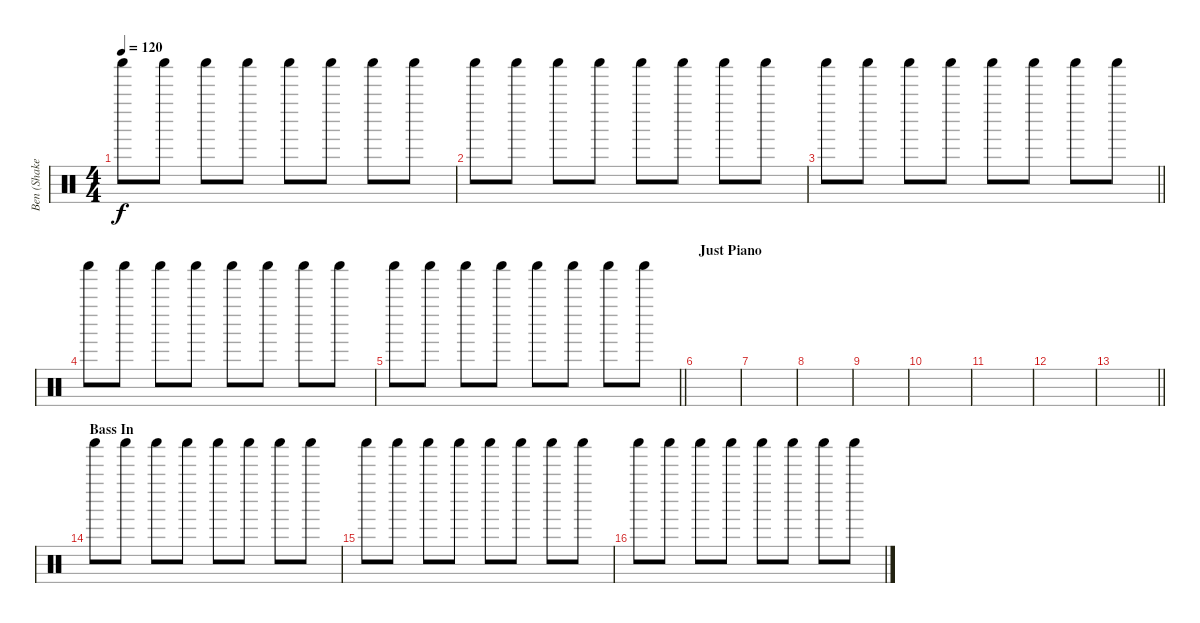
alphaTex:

\track ("Ben (Shaker LOL)" "Ben (Shake") {instrument percussion}
\staff {score}
\articulation defaults
\ts (4 4)
\tempo 120
\clef neutral
\ks c "Shaker (hit)".8{dy f} "Shaker (hit)".8 "Shaker (hit)".8 "Shaker (hit)".8 "Shaker (hit)".8 "Shaker (hit)".8 "Shaker (hit)".8 "Shaker (hit)".8
|
"Shaker (hit)".8 "Shaker (hit)".8 "Shaker (hit)".8 "Shaker (hit)".8 "Shaker (hit)".8 "Shaker (hit)".8 "Shaker (hit)".8 "Shaker (hit)".8 |
\barLineRight lightlight "Shaker (hit)".8 "Shaker (hit)".8 "Shaker (hit)".8 "Shaker (hit)".8 "Shaker (hit)".8 "Shaker (hit)".8 "Shaker (hit)".8 "Shaker (hit)".8
|
"Shaker (hit)".8 "Shaker (hit)".8 "Shaker (hit)".8 "Shaker (hit)".8 "Shaker (hit)".8 "Shaker (hit)".8 "Shaker (hit)".8 "Shaker (hit)".8 |
\barLineRight lightlight "Shaker (hit)".8 "Shaker (hit)".8 "Shaker (hit)".8 "Shaker (hit)".8 "Shaker (hit)".8 "Shaker (hit)".8 "Shaker (hit)".8 "Shaker (hit)".8
|
\section ("" "Just Piano")
|
|
|
|
|
|
|
\barLineRight lightlight
|
\section ("" "Bass In")
"Shaker (hit)".8 "Shaker (hit)".8 "Shaker (hit)".8 "Shaker (hit)".8 "Shaker (hit)".8 "Shaker (hit)".8 "Shaker (hit)".8 "Shaker (hit)".8 |
"Shaker (hit)".8 "Shaker (hit)".8 "Shaker (hit)".8 "Shaker (hit)".8 "Shaker (hit)".8 "Shaker (hit)".8 "Shaker (hit)".8 "Shaker (hit)".8 |
"Shaker (hit)".8 "Shaker (hit)".8 "Shaker (hit)".8 "Shaker (hit)".8 "Shaker (hit)".8 "Shaker (hit)".8 "Shaker (hit)".8 "Shaker (hit)".8
